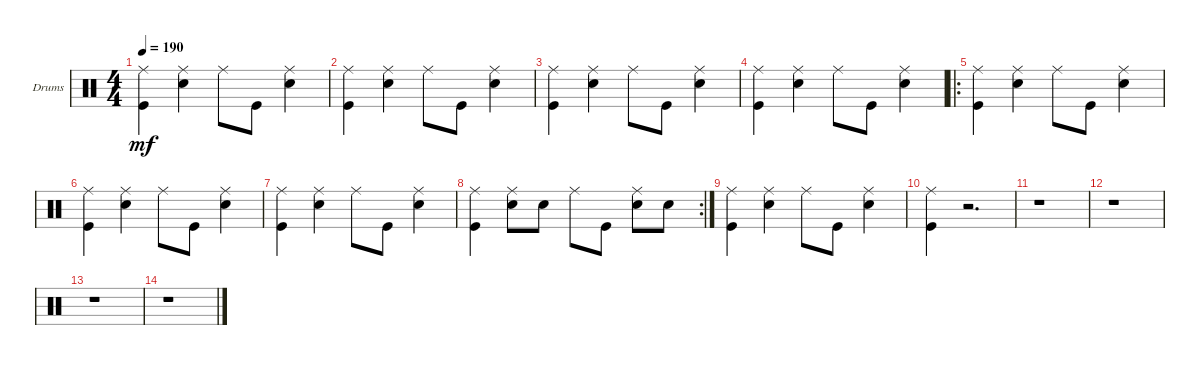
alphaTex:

\defaultSystemsLayout 4
\bracketExtendMode groupsimilarinstruments
\firstSystemTrackNameOrientation horizontal
\otherSystemsTrackNameOrientation horizontal
\track ("Drumkit" "Drums") {instrument percussion}
\staff {score}
\articulation defaults
\ts (4 4)
\tempo 190
\clef neutral
\ks c
("Kick (hit)" "Ride (middle)").4{dy mf} ("Snare (hit) 2" "Ride (middle)").4 "Ride (middle)".8 "Kick (hit)".8 ("Ride (middle)" "Snare (hit) 2").4 |
("Kick (hit)" "Ride (middle)").4 ("Snare (hit) 2" "Ride (middle)").4 "Ride (middle)".8 "Kick (hit)".8 ("Ride (middle)" "Snare (hit) 2").4 |
("Kick (hit)" "Ride (middle)").4 ("Snare (hit) 2" "Ride (middle)").4 "Ride (middle)".8 "Kick (hit)".8 ("Ride (middle)" "Snare (hit) 2").4 |
("Kick (hit)" "Ride (middle)").4 ("Snare (hit) 2" "Ride (middle)").4 "Ride (middle)".8 "Kick (hit)".8 ("Ride (middle)" "Snare (hit) 2").4 |
\ro
("Kick (hit)" "Ride (middle)").4 ("Snare (hit) 2" "Ride (middle)").4 "Ride (middle)".8 "Kick (hit)".8 ("Ride (middle)" "Snare (hit) 2").4 |
("Kick (hit)" "Ride (middle)").4 ("Snare (hit) 2" "Ride (middle)").4 "Ride (middle)".8 "Kick (hit)".8 ("Ride (middle)" "Snare (hit) 2").4 |
("Kick (hit)" "Ride (middle)").4 ("Snare (hit) 2" "Ride (middle)").4 "Ride (middle)".8 "Kick (hit)".8 ("Ride (middle)" "Snare (hit) 2").4 |
\rc 2
("Kick (hit)" "Ride (middle)").4 ("Snare (hit) 2" "Ride (middle)").8 "Snare (hit) 2".8 "Ride (middle)".8 "Kick (hit)".8 ("Ride (middle)" "Snare (hit) 2").8 "Snare (hit) 2".8 |
("Kick (hit)" "Ride (middle)").4 ("Snare (hit) 2" "Ride (middle)").4 "Ride (middle)".8 "Kick (hit)".8 ("Ride (middle)" "Snare (hit) 2").4 |
("Kick (hit)" "Ride (middle)").4 r.2{d} |
r.1 |
r.1 |
r.1 |
r.1
